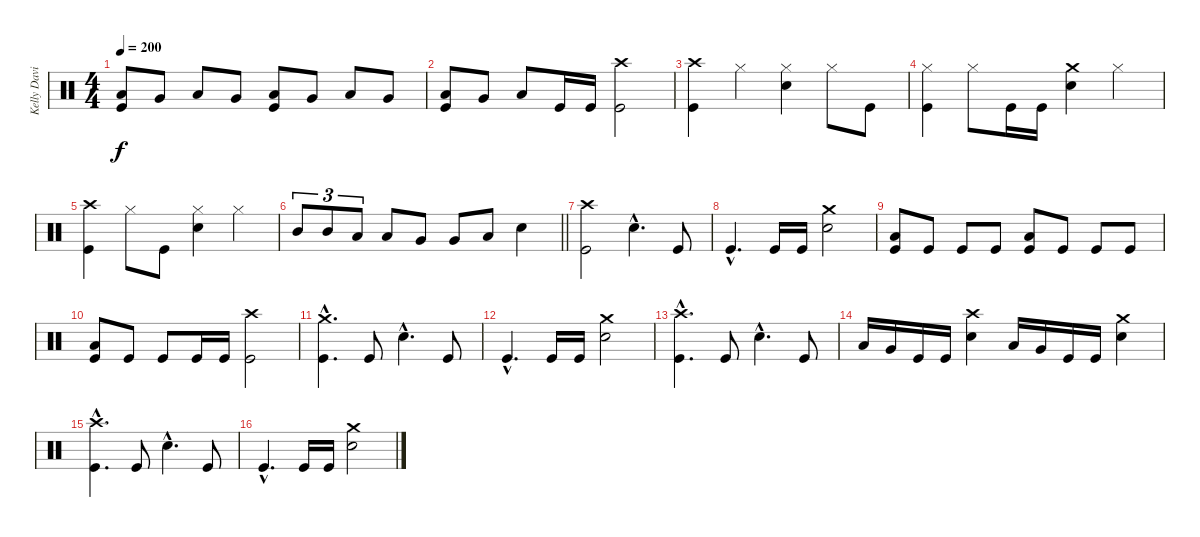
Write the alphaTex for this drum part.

\track ("Kelly David Smith" "Kelly Davi") {instrument percussion}
\staff {score}
\articulation defaults
\ts (4 4)
\tempo 200
\clef neutral
\ks c
("Low Tom (hit)" "Kick (hit)").8{dy f} "Very Low Tom (hit)".8 "Low Floor Tom (hit)".8 "Very Low Tom (hit)".8 ("Low Tom (hit)" "Kick (hit)").8 "Very Low Tom (hit)".8 "Low Floor Tom (hit)".8 "Very Low Tom (hit)".8 |
("Low Floor Tom (hit)" "Kick (hit)").8 "Very Low Tom (hit)".8 "Low Tom (hit)".8 "Kick (hit)".16 "Kick (hit)".16 ("Crash high (hit)" "Kick (hit)").2 |
("Crash high (hit)" "Kick (hit)").4 "Hi-Hat (closed)".4 ("Hi-Hat (closed)" "Electric Snare (hit)").4 "Hi-Hat (closed)".8 "Kick (hit)".8 |
("Hi-Hat (closed)" "Kick (hit)").4 "Hi-Hat (closed)".8 "Kick (hit)".16 "Kick (hit)".16 ("Crash medium (hit)" "Electric Snare (hit)").4 "Hi-Hat (closed)".4 |
("Crash high (hit)" "Kick (hit)").4 "Hi-Hat (closed)".8 "Kick (hit)".8 ("Hi-Hat (closed)" "Electric Snare (hit)").4 "Hi-Hat (closed)".4 |
\barLineRight lightlight "Mid Tom (hit)".8{tu (3 2)} "Mid Tom (hit)".8{tu (3 2)} "Low Tom (hit)".8{tu (3 2)} "Low Tom (hit)".8 "Very Low Tom (hit)".8 "Very Low Tom (hit)".8 "Low Floor Tom (hit)".8 "Electric Snare (hit)".4
|
("Crash high (hit)" "Kick (hit)").2 "Electric Snare (hit)"{hac}.4{d} "Kick (hit)".8 |
"Kick (hit)"{hac}.4{d} "Kick (hit)".16 "Kick (hit)".16 ("Crash medium (hit)" "Electric Snare (hit)").2 |
("Low Floor Tom (hit)" "Kick (hit)").8 "Kick (hit)".8 "Kick (hit)".8 "Kick (hit)".8 ("Low Floor Tom (hit)" "Kick (hit)").8 "Kick (hit)".8 "Kick (hit)".8 "Kick (hit)".8 |
("Low Floor Tom (hit)" "Kick (hit)").8 "Kick (hit)".8 "Kick (hit)".8 "Kick (hit)".16 "Kick (hit)".16 ("Crash high (hit)" "Kick (hit)").2 |
("Crash medium (hit)"{hac} "Kick (hit)"{hac}).4{d} "Kick (hit)".8 "Electric Snare (hit)"{hac}.4{d} "Kick (hit)".8 |
"Kick (hit)"{hac}.4{d} "Kick (hit)".16 "Kick (hit)".16 ("Crash medium (hit)" "Electric Snare (hit)").2 |
("Crash high (hit)"{hac} "Kick (hit)"{hac}).4{d} "Kick (hit)".8 "Electric Snare (hit)"{hac}.4{d} "Kick (hit)".8 |
"Low Tom (hit)".16 "Very Low Tom (hit)".16 "Kick (hit)".16 "Kick (hit)".16 ("Crash high (hit)" "Electric Snare (hit)").4 "Low Tom (hit)".16 "Very Low Tom (hit)".16 "Kick (hit)".16 "Kick (hit)".16 ("Crash medium (hit)" "Electric Snare (hit)").4 |
("Crash high (hit)"{hac} "Kick (hit)"{hac}).4{d} "Kick (hit)".8 "Electric Snare (hit)"{hac}.4{d} "Kick (hit)".8 |
"Kick (hit)"{hac}.4{d} "Kick (hit)".16 "Kick (hit)".16 ("Crash medium (hit)" "Electric Snare (hit)").2
